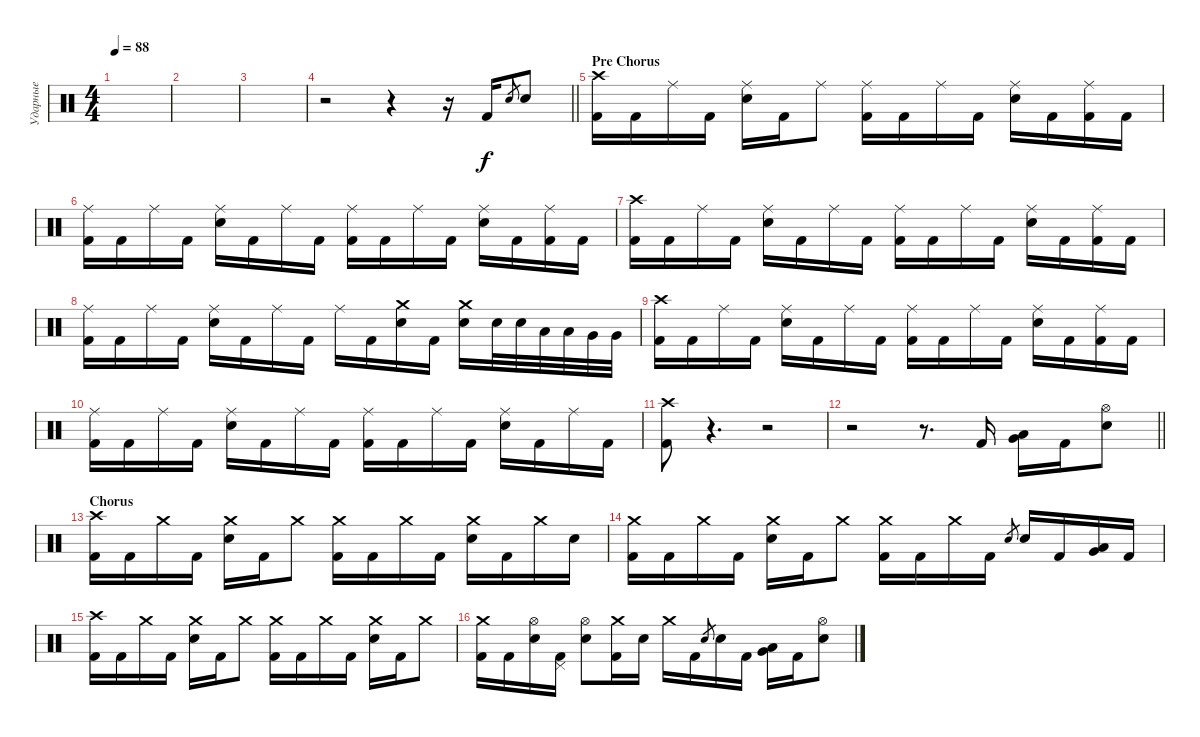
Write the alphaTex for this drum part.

\track ("Ударные" "Ударные") {instrument percussion}
\staff {score}
\articulation defaults
\ts (4 4)
\tempo 88
\clef neutral
\ks c
|
|
|
\barLineRight lightlight
r.2 r.4 r.16 "Kick (hit) 2".16 "Electric Snare (hit)".8{gr} "Electric Snare (hit)".8 |
\section ("" "Pre Chorus")
("Crash high (hit)" "Kick (hit) 2").16 "Kick (hit) 2".16 "Ride (middle)".16 "Kick (hit) 2".16 ("Ride (middle)" "Electric Snare (hit)").16 "Kick (hit) 2".16 "Ride (middle)".8 ("Ride (middle)" "Kick (hit) 2").16 "Kick (hit) 2".16 "Ride (middle)".16 "Kick (hit) 2".16 ("Ride (middle)" "Electric Snare (hit)").16 "Kick (hit) 2".16 ("Ride (middle)" "Kick (hit) 2").16 "Kick (hit) 2".16 |
("Ride (middle)" "Kick (hit) 2").16 "Kick (hit) 2".16 "Ride (middle)".16 "Kick (hit) 2".16 ("Ride (middle)" "Electric Snare (hit)").16 "Kick (hit) 2".16 "Ride (middle)".16 "Kick (hit) 2".16 ("Ride (middle)" "Kick (hit) 2").16 "Kick (hit) 2".16 "Ride (middle)".16 "Kick (hit) 2".16 ("Ride (middle)" "Electric Snare (hit)").16 "Kick (hit) 2".16 ("Ride (middle)" "Kick (hit) 2").16 "Kick (hit) 2".16 |
("Crash high (hit)" "Kick (hit) 2").16 "Kick (hit) 2".16 "Ride (middle)".16 "Kick (hit) 2".16 ("Ride (middle)" "Electric Snare (hit)").16 "Kick (hit) 2".16 "Ride (middle)".16 "Kick (hit) 2".16 ("Ride (middle)" "Kick (hit) 2").16 "Kick (hit) 2".16 "Ride (middle)".16 "Kick (hit) 2".16 ("Ride (middle)" "Electric Snare (hit)").16 "Kick (hit) 2".16 ("Ride (middle)" "Kick (hit) 2").16 "Kick (hit) 2".16 |
("Ride (middle)" "Kick (hit) 2").16 "Kick (hit) 2".16 "Ride (middle)".16 "Kick (hit) 2".16 ("Ride (middle)" "Electric Snare (hit)").16 "Kick (hit) 2".16 "Ride (middle)".16 "Kick (hit) 2".16 "Ride (middle)".16 "Kick (hit) 2".16 ("Crash medium (hit)" "Electric Snare (hit)").16 "Kick (hit) 2".16 ("Crash medium (hit)" "Electric Snare (hit)").16 "Electric Snare (hit)".32 "Electric Snare (hit)".32 "Low Tom (hit)".32 "Low Tom (hit)".32 "Very Low Tom (hit)".32 "Very Low Tom (hit)".32 |
("Crash high (hit)" "Kick (hit) 2").16 "Kick (hit) 2".16 "Ride (middle)".16 "Kick (hit) 2".16 ("Ride (middle)" "Electric Snare (hit)").16 "Kick (hit) 2".16 "Ride (middle)".16 "Kick (hit) 2".16 ("Ride (middle)" "Kick (hit) 2").16 "Kick (hit) 2".16 "Ride (middle)".16 "Kick (hit) 2".16 ("Ride (middle)" "Electric Snare (hit)").16 "Kick (hit) 2".16 ("Ride (middle)" "Kick (hit) 2").16 "Kick (hit) 2".16 |
("Ride (middle)" "Kick (hit) 2").16 "Kick (hit) 2".16 "Ride (middle)".16 "Kick (hit) 2".16 ("Ride (middle)" "Electric Snare (hit)").16 "Kick (hit) 2".16 "Ride (middle)".16 "Kick (hit) 2".16 ("Ride (middle)" "Kick (hit) 2").16 "Kick (hit) 2".16 "Ride (middle)".16 "Kick (hit) 2".16 ("Ride (middle)" "Electric Snare (hit)").16 "Kick (hit) 2".16 "Ride (middle)".16 "Kick (hit) 2".16 |
("Crash high (hit)" "Kick (hit) 2").8 r.4{d volume 0} r.2 |
\barLineRight lightlight
r.2 r.8{d} "Kick (hit) 2".16{volume 16} ("Low Tom (hit)" "Very Low Tom (hit)").16 "Kick (hit) 2".16 ("Hi-Hat (open)" "Electric Snare (hit)").8 |
\section ("" "Chorus")
("Crash high (hit)" "Kick (hit) 2").16 "Kick (hit) 2".16 "Crash medium (hit)".16 "Kick (hit) 2".16 ("Crash medium (hit)" "Electric Snare (hit)").16 "Kick (hit) 2".16 "Crash medium (hit)".8 ("Crash medium (hit)" "Kick (hit) 2").16 "Kick (hit) 2".16 "Crash medium (hit)".16 "Kick (hit) 2".16 ("Crash medium (hit)" "Electric Snare (hit)").16 "Kick (hit) 2".16 "Crash medium (hit)".16 "Electric Snare (hit)".16 |
("Crash medium (hit)" "Kick (hit) 2").16 "Kick (hit) 2".16 "Crash medium (hit)".16 "Kick (hit) 2".16 ("Crash medium (hit)" "Electric Snare (hit)").16 "Kick (hit) 2".16 "Crash medium (hit)".8 ("Crash medium (hit)" "Kick (hit) 2").16 "Kick (hit) 2".16 "Crash medium (hit)".16 "Kick (hit) 2".16 "Electric Snare (hit)".8{gr} "Electric Snare (hit)".16 "Kick (hit) 2".16 ("Low Tom (hit)" "Very Low Tom (hit)").16 "Kick (hit) 2".16 |
("Crash high (hit)" "Kick (hit) 2").16 "Kick (hit) 2".16 "Crash medium (hit)".16 "Kick (hit) 2".16 ("Crash medium (hit)" "Electric Snare (hit)").16 "Kick (hit) 2".16 "Crash medium (hit)".8 ("Crash medium (hit)" "Kick (hit) 2").16 "Kick (hit) 2".16 "Crash medium (hit)".16 "Kick (hit) 2".16 ("Crash medium (hit)" "Electric Snare (hit)").16 "Kick (hit) 2".16 "Crash medium (hit)".8 |
("Crash medium (hit)" "Kick (hit) 2").16 "Kick (hit) 2".16 ("Hi-Hat (open)" "Electric Snare (hit)").16 ("Pedal Hi-Hat (hit)" "Kick (hit) 2").16 ("Hi-Hat (open)" "Electric Snare (hit)").8 ("Crash medium (hit)" "Kick (hit) 2").16 "Electric Snare (hit)".16 "Crash medium (hit)".16 "Kick (hit) 2".16 "Electric Snare (hit)".8{gr} "Electric Snare (hit)".16 "Kick (hit) 2".16 ("Low Tom (hit)" "Very Low Tom (hit)").16 "Kick (hit) 2".16 ("Hi-Hat (open)" "Electric Snare (hit)").8
